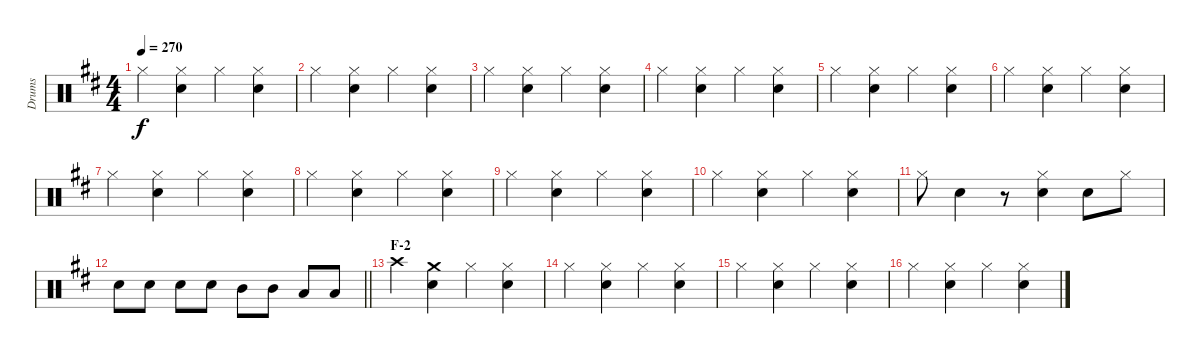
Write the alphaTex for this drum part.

\track ("Drums" "Drums") {instrument percussion}
\staff {score}
\articulation defaults
\ts (4 4)
\tempo 270
\clef neutral
\ks d "Hi-Hat (closed)".4{dy f}
("Hi-Hat (closed)" "Snare (hit) 2").4 "Hi-Hat (closed)".4 ("Hi-Hat (closed)" "Snare (hit) 2").4 |
"Hi-Hat (closed)".4 ("Hi-Hat (closed)" "Snare (hit) 2").4 "Hi-Hat (closed)".4 ("Hi-Hat (closed)" "Snare (hit) 2").4 |
"Hi-Hat (closed)".4 ("Hi-Hat (closed)" "Snare (hit) 2").4 "Hi-Hat (closed)".4 ("Hi-Hat (closed)" "Snare (hit) 2").4 |
"Hi-Hat (closed)".4 ("Hi-Hat (closed)" "Snare (hit) 2").4 "Hi-Hat (closed)".4 ("Hi-Hat (closed)" "Snare (hit) 2").4 |
"Hi-Hat (closed)".4 ("Hi-Hat (closed)" "Snare (hit) 2").4 "Hi-Hat (closed)".4 ("Hi-Hat (closed)" "Snare (hit) 2").4 |
"Hi-Hat (closed)".4 ("Hi-Hat (closed)" "Snare (hit) 2").4 "Hi-Hat (closed)".4 ("Hi-Hat (closed)" "Snare (hit) 2").4 |
"Hi-Hat (closed)".4 ("Hi-Hat (closed)" "Snare (hit) 2").4 "Hi-Hat (closed)".4 ("Hi-Hat (closed)" "Snare (hit) 2").4 |
"Hi-Hat (closed)".4 ("Hi-Hat (closed)" "Snare (hit) 2").4 "Hi-Hat (closed)".4 ("Hi-Hat (closed)" "Snare (hit) 2").4 |
"Hi-Hat (closed)".4 ("Hi-Hat (closed)" "Snare (hit) 2").4 "Hi-Hat (closed)".4 ("Hi-Hat (closed)" "Snare (hit) 2").4 |
"Hi-Hat (closed)".4 ("Hi-Hat (closed)" "Snare (hit) 2").4 "Hi-Hat (closed)".4 ("Hi-Hat (closed)" "Snare (hit) 2").4 |
"Hi-Hat (closed)".8 "Snare (hit) 2".4 r.8 ("Hi-Hat (closed)" "Snare (hit) 2").4 "Snare (hit) 2".8 "Hi-Hat (closed)".8 |
\barLineRight lightlight "Snare (hit) 2".8 "Snare (hit) 2".8 "Snare (hit) 2".8 "Snare (hit) 2".8 "Mid Tom (hit)".8 "Mid Tom (hit)".8 "Low Tom (hit)".8 "Low Tom (hit)".8
|
\section ("" "F-2")
"Crash high (hit)".4 ("Crash medium (hit)" "Snare (hit) 2").4 "Hi-Hat (closed)".4 ("Hi-Hat (closed)" "Snare (hit) 2").4 |
"Hi-Hat (closed)".4 ("Hi-Hat (closed)" "Snare (hit) 2").4 "Hi-Hat (closed)".4 ("Hi-Hat (closed)" "Snare (hit) 2").4 |
"Hi-Hat (closed)".4 ("Hi-Hat (closed)" "Snare (hit) 2").4 "Hi-Hat (closed)".4 ("Hi-Hat (closed)" "Snare (hit) 2").4 |
"Hi-Hat (closed)".4 ("Hi-Hat (closed)" "Snare (hit) 2").4 "Hi-Hat (closed)".4 ("Hi-Hat (closed)" "Snare (hit) 2").4
